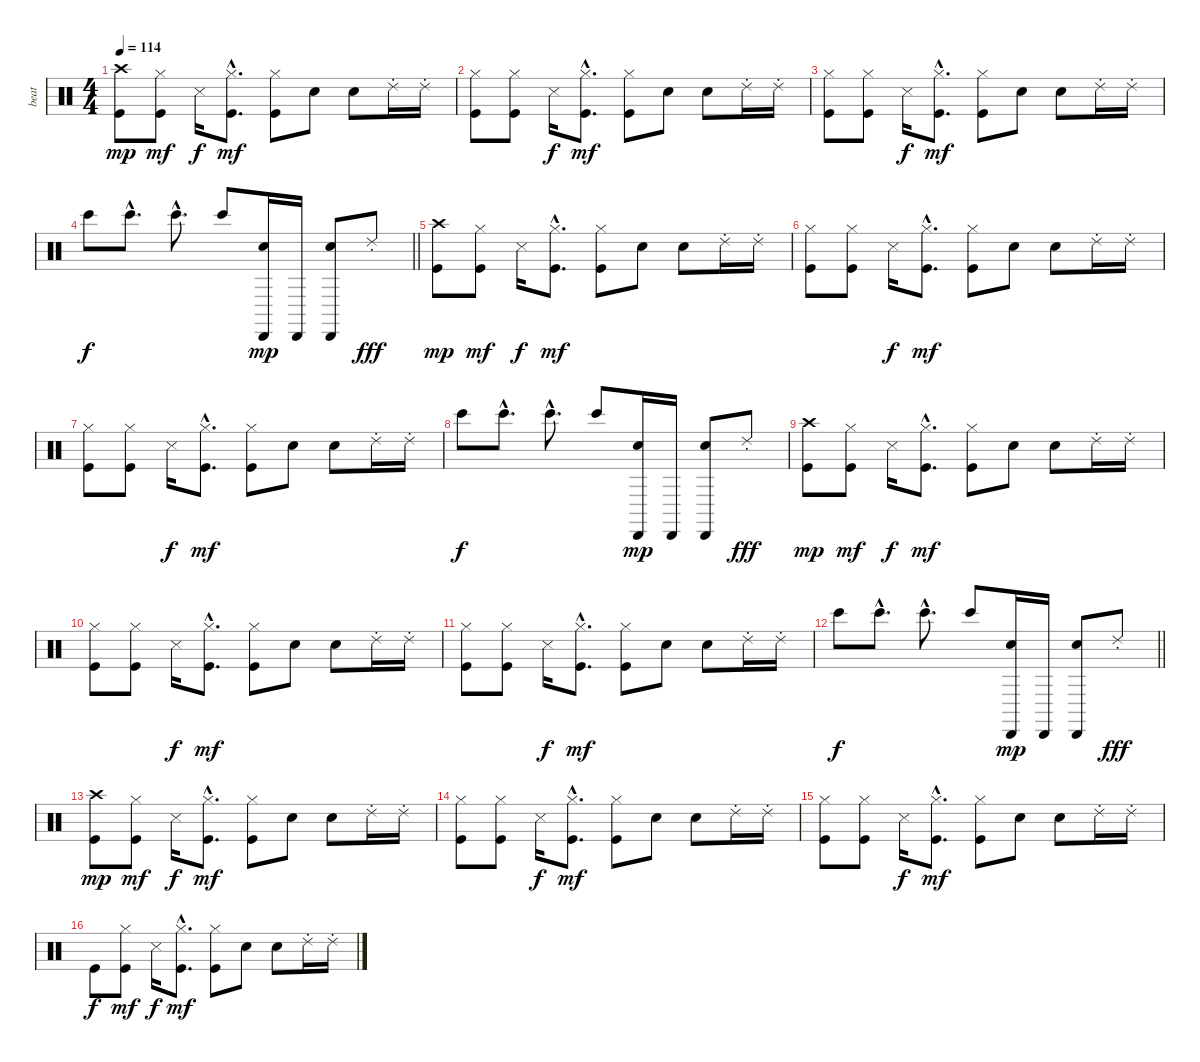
\track ("beat" "beat") {instrument percussion}
\staff {score}
\articulation defaults
\ts (4 4)
\tempo 114
\clef neutral
\ks c
("Kick (hit)" "Crash high (hit)").8{dy mp} ("Kick (hit)" "Hi-Hat (closed)").8{dy mf} "Snare (side stick) 3".16{dy f} ("Kick (hit)"{hac} "Hi-Hat (closed)"{hac}).8{d dy mf} ("Kick (hit)" "Hi-Hat (closed)").8 "Hand Clap (hit)".8 "Hand Clap (hit)".8 "Ride (choke) 2".16 "Ride (choke) 2".16 |
("Kick (hit)" "Hi-Hat (closed)").8 ("Kick (hit)" "Hi-Hat (closed)").8 "Snare (side stick) 3".16{dy f} ("Kick (hit)"{hac} "Hi-Hat (closed)"{hac}).8{d dy mf} ("Kick (hit)" "Hi-Hat (closed)").8 "Hand Clap (hit)".8 "Hand Clap (hit)".8 "Ride (choke) 2".16 "Ride (choke) 2".16 |
("Kick (hit)" "Hi-Hat (closed)").8 ("Kick (hit)" "Hi-Hat (closed)").8 "Snare (side stick) 3".16{dy f} ("Kick (hit)"{hac} "Hi-Hat (closed)"{hac}).8{d dy mf} ("Kick (hit)" "Hi-Hat (closed)").8 "Hand Clap (hit)".8 "Hand Clap (hit)".8 "Ride (choke) 2".16 "Ride (choke) 2".16 |
\barLineRight lightlight "Bongo High (hit)".8{dy f} "Bongo High (hit)"{hac}.8{d} "Bongo High (hit)"{hac}.8{d} "Bongo High (hit)".8
("Cabasa (hit)" "Hand Clap (hit)").16{dy mp} "Cabasa (hit)".16 ("Cabasa (hit)" "Hand Clap (hit)").8 "Ride (choke) 2".8{dy fff} |
("Kick (hit)" "Crash high (hit)").8{dy mp} ("Kick (hit)" "Hi-Hat (closed)").8{dy mf} "Snare (side stick) 3".16{dy f} ("Kick (hit)"{hac} "Hi-Hat (closed)"{hac}).8{d dy mf} ("Kick (hit)" "Hi-Hat (closed)").8 "Hand Clap (hit)".8 "Hand Clap (hit)".8 "Ride (choke) 2".16 "Ride (choke) 2".16 |
("Kick (hit)" "Hi-Hat (closed)").8 ("Kick (hit)" "Hi-Hat (closed)").8 "Snare (side stick) 3".16{dy f} ("Kick (hit)"{hac} "Hi-Hat (closed)"{hac}).8{d dy mf} ("Kick (hit)" "Hi-Hat (closed)").8 "Hand Clap (hit)".8 "Hand Clap (hit)".8 "Ride (choke) 2".16 "Ride (choke) 2".16 |
("Kick (hit)" "Hi-Hat (closed)").8 ("Kick (hit)" "Hi-Hat (closed)").8 "Snare (side stick) 3".16{dy f} ("Kick (hit)"{hac} "Hi-Hat (closed)"{hac}).8{d dy mf} ("Kick (hit)" "Hi-Hat (closed)").8 "Hand Clap (hit)".8 "Hand Clap (hit)".8 "Ride (choke) 2".16 "Ride (choke) 2".16 |
"Bongo High (hit)".8{dy f} "Bongo High (hit)"{hac}.8{d} "Bongo High (hit)"{hac}.8{d} "Bongo High (hit)".8 ("Cabasa (hit)" "Hand Clap (hit)").16{dy mp} "Cabasa (hit)".16 ("Cabasa (hit)" "Hand Clap (hit)").8 "Ride (choke) 2".8{dy fff} |
("Kick (hit)" "Crash high (hit)").8{dy mp} ("Kick (hit)" "Hi-Hat (closed)").8{dy mf} "Snare (side stick) 3".16{dy f} ("Kick (hit)"{hac} "Hi-Hat (closed)"{hac}).8{d dy mf} ("Kick (hit)" "Hi-Hat (closed)").8 "Hand Clap (hit)".8 "Hand Clap (hit)".8 "Ride (choke) 2".16 "Ride (choke) 2".16 |
("Kick (hit)" "Hi-Hat (closed)").8 ("Kick (hit)" "Hi-Hat (closed)").8 "Snare (side stick) 3".16{dy f} ("Kick (hit)"{hac} "Hi-Hat (closed)"{hac}).8{d dy mf} ("Kick (hit)" "Hi-Hat (closed)").8 "Hand Clap (hit)".8 "Hand Clap (hit)".8 "Ride (choke) 2".16 "Ride (choke) 2".16 |
("Kick (hit)" "Hi-Hat (closed)").8 ("Kick (hit)" "Hi-Hat (closed)").8 "Snare (side stick) 3".16{dy f} ("Kick (hit)"{hac} "Hi-Hat (closed)"{hac}).8{d dy mf} ("Kick (hit)" "Hi-Hat (closed)").8 "Hand Clap (hit)".8 "Hand Clap (hit)".8 "Ride (choke) 2".16 "Ride (choke) 2".16 |
\barLineRight lightlight "Bongo High (hit)".8{dy f} "Bongo High (hit)"{hac}.8{d} "Bongo High (hit)"{hac}.8{d} "Bongo High (hit)".8
("Cabasa (hit)" "Hand Clap (hit)").16{dy mp} "Cabasa (hit)".16 ("Cabasa (hit)" "Hand Clap (hit)").8 "Ride (choke) 2".8{dy fff} |
("Kick (hit)" "Crash high (hit)").8{dy mp} ("Kick (hit)" "Hi-Hat (closed)").8{dy mf} "Snare (side stick) 3".16{dy f} ("Kick (hit)"{hac} "Hi-Hat (closed)"{hac}).8{d dy mf} ("Kick (hit)" "Hi-Hat (closed)").8 "Hand Clap (hit)".8 "Hand Clap (hit)".8 "Ride (choke) 2".16 "Ride (choke) 2".16 |
("Kick (hit)" "Hi-Hat (closed)").8 ("Kick (hit)" "Hi-Hat (closed)").8 "Snare (side stick) 3".16{dy f} ("Kick (hit)"{hac} "Hi-Hat (closed)"{hac}).8{d dy mf} ("Kick (hit)" "Hi-Hat (closed)").8 "Hand Clap (hit)".8 "Hand Clap (hit)".8 "Ride (choke) 2".16 "Ride (choke) 2".16 |
("Kick (hit)" "Hi-Hat (closed)").8 ("Kick (hit)" "Hi-Hat (closed)").8 "Snare (side stick) 3".16{dy f} ("Kick (hit)"{hac} "Hi-Hat (closed)"{hac}).8{d dy mf} ("Kick (hit)" "Hi-Hat (closed)").8 "Hand Clap (hit)".8 "Hand Clap (hit)".8 "Ride (choke) 2".16 "Ride (choke) 2".16 |
"Kick (hit)".8{dy f} ("Kick (hit)" "Hi-Hat (closed)").8{dy mf} "Snare (side stick) 3".16{dy f} ("Kick (hit)"{hac} "Hi-Hat (closed)"{hac}).8{d dy mf} ("Kick (hit)" "Hi-Hat (closed)").8 "Hand Clap (hit)".8 "Hand Clap (hit)".8 "Ride (choke) 2".16 "Ride (choke) 2".16
